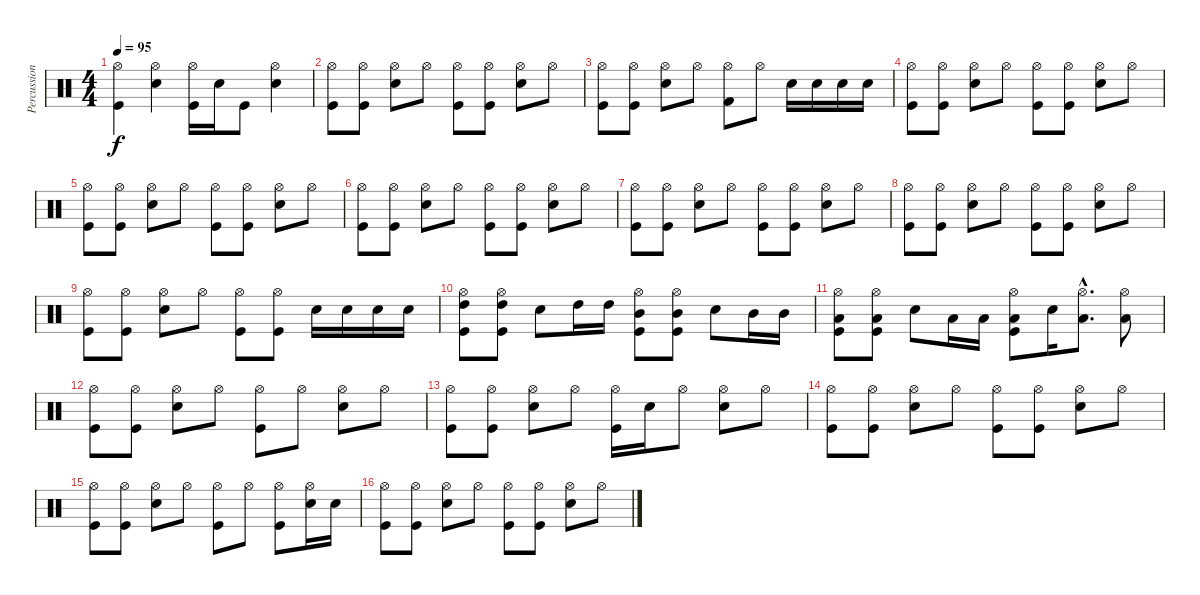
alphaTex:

\track ("Percussion" "Percussion") {instrument percussion}
\staff {score}
\articulation defaults
\ts (4 4)
\tempo 95
\clef neutral
\ks c
("Hi-Hat (open)" "Kick (hit)").4{dy f} ("Hi-Hat (open)" "Snare (hit) 2").4 ("Hi-Hat (open)" "Kick (hit)").16 "Snare (hit) 2".16 "Kick (hit)".8 ("Hi-Hat (open)" "Snare (hit) 2").4 |
("Hi-Hat (open)" "Kick (hit)").8 ("Hi-Hat (open)" "Kick (hit)").8 ("Hi-Hat (open)" "Snare (hit) 2").8 "Hi-Hat (open)".8 ("Hi-Hat (open)" "Kick (hit)").8 ("Hi-Hat (open)" "Kick (hit)").8 ("Hi-Hat (open)" "Snare (hit) 2").8 "Hi-Hat (open)".8 |
("Hi-Hat (open)" "Kick (hit)").8 ("Hi-Hat (open)" "Kick (hit)").8 ("Hi-Hat (open)" "Snare (hit) 2").8 "Hi-Hat (open)".8 ("Hi-Hat (open)" "Kick (hit) 2").8 "Hi-Hat (open)".8 "Snare (hit) 2".16 "Snare (hit) 2".16 "Snare (hit) 2".16 "Snare (hit) 2".16 |
("Hi-Hat (open)" "Kick (hit)").8 ("Hi-Hat (open)" "Kick (hit)").8 ("Hi-Hat (open)" "Snare (hit) 2").8 "Hi-Hat (open)".8 ("Hi-Hat (open)" "Kick (hit)").8 ("Hi-Hat (open)" "Kick (hit)").8 ("Hi-Hat (open)" "Snare (hit) 2").8 "Hi-Hat (open)".8 |
("Hi-Hat (open)" "Kick (hit)").8 ("Hi-Hat (open)" "Kick (hit)").8 ("Hi-Hat (open)" "Snare (hit) 2").8 "Hi-Hat (open)".8 ("Hi-Hat (open)" "Kick (hit)").8 ("Hi-Hat (open)" "Kick (hit)").8 ("Hi-Hat (open)" "Snare (hit) 2").8 "Hi-Hat (open)".8 |
("Hi-Hat (open)" "Kick (hit)").8 ("Hi-Hat (open)" "Kick (hit)").8 ("Hi-Hat (open)" "Snare (hit) 2").8 "Hi-Hat (open)".8 ("Hi-Hat (open)" "Kick (hit)").8 ("Hi-Hat (open)" "Kick (hit)").8 ("Hi-Hat (open)" "Snare (hit) 2").8 "Hi-Hat (open)".8 |
("Hi-Hat (open)" "Kick (hit)").8 ("Hi-Hat (open)" "Kick (hit)").8 ("Hi-Hat (open)" "Snare (hit) 2").8 "Hi-Hat (open)".8 ("Hi-Hat (open)" "Kick (hit)").8 ("Hi-Hat (open)" "Kick (hit)").8 ("Hi-Hat (open)" "Snare (hit) 2").8 "Hi-Hat (open)".8 |
("Hi-Hat (open)" "Kick (hit)").8 ("Hi-Hat (open)" "Kick (hit)").8 ("Hi-Hat (open)" "Snare (hit) 2").8 "Hi-Hat (open)".8 ("Hi-Hat (open)" "Kick (hit)").8 ("Hi-Hat (open)" "Kick (hit)").8 ("Hi-Hat (open)" "Snare (hit) 2").8 "Hi-Hat (open)".8 |
("Hi-Hat (open)" "Kick (hit)").8 ("Hi-Hat (open)" "Kick (hit)").8 ("Hi-Hat (open)" "Snare (hit) 2").8 "Hi-Hat (open)".8 ("Hi-Hat (open)" "Kick (hit)").8 ("Hi-Hat (open)" "Kick (hit)").8 "Snare (hit) 2".16 "Snare (hit) 2".16 "Snare (hit) 2".16 "Snare (hit) 2".16 |
("High Tom (hit)" "Hi-Hat (open)" "Kick (hit)").8 ("High Tom (hit)" "Hi-Hat (open)" "Kick (hit)").8 "Snare (hit) 2".8 "High Tom (hit)".16 "High Tom (hit)".16 ("Mid Tom (hit)" "Hi-Hat (open)" "Kick (hit)").8 ("Mid Tom (hit)" "Hi-Hat (open)" "Kick (hit)").8 "Snare (hit) 2".8 "Mid Tom (hit)".16 "Mid Tom (hit)".16 |
("Low Tom (hit)" "Hi-Hat (open)" "Kick (hit)").8 ("Low Tom (hit)" "Hi-Hat (open)" "Kick (hit)").8 "Snare (hit) 2".8 "Low Tom (hit)".16 "Low Tom (hit)".16 ("Low Tom (hit)" "Hi-Hat (open)" "Kick (hit)").8 "Snare (hit) 2".16 ("Low Tom (hit)"{hac} "Hi-Hat (open)"{hac}).8{d} ("Low Tom (hit)" "Hi-Hat (open)").8 |
("Hi-Hat (open)" "Kick (hit)").8 ("Hi-Hat (open)" "Kick (hit)").8 ("Hi-Hat (open)" "Snare (hit) 2").8 "Hi-Hat (open)".8 ("Hi-Hat (open)" "Kick (hit)").8 "Hi-Hat (open)".8 ("Hi-Hat (open)" "Snare (hit) 2").8 "Hi-Hat (open)".8 |
("Hi-Hat (open)" "Kick (hit)").8 ("Hi-Hat (open)" "Kick (hit)").8 ("Hi-Hat (open)" "Snare (hit) 2").8 "Hi-Hat (open)".8 ("Hi-Hat (open)" "Kick (hit)").16 "Snare (hit) 2".16 "Hi-Hat (open)".8 ("Hi-Hat (open)" "Snare (hit) 2").8 "Hi-Hat (open)".8 |
("Hi-Hat (open)" "Kick (hit)").8 ("Hi-Hat (open)" "Kick (hit)").8 ("Hi-Hat (open)" "Snare (hit) 2").8 "Hi-Hat (open)".8 ("Hi-Hat (open)" "Kick (hit)").8 ("Hi-Hat (open)" "Kick (hit)").8 ("Hi-Hat (open)" "Snare (hit) 2").8 "Hi-Hat (open)".8 |
("Hi-Hat (open)" "Kick (hit)").8 ("Hi-Hat (open)" "Kick (hit)").8 ("Hi-Hat (open)" "Snare (hit) 2").8 "Hi-Hat (open)".8 ("Hi-Hat (open)" "Kick (hit)").8 "Hi-Hat (open)".8 ("Hi-Hat (open)" "Kick (hit)").8 ("Hi-Hat (open)" "Snare (hit) 2").16 "Snare (hit) 2".16 |
("Hi-Hat (open)" "Kick (hit)").8 ("Hi-Hat (open)" "Kick (hit)").8 ("Hi-Hat (open)" "Snare (hit) 2").8 "Hi-Hat (open)".8 ("Hi-Hat (open)" "Kick (hit)").8 ("Hi-Hat (open)" "Kick (hit)").8 ("Hi-Hat (open)" "Snare (hit) 2").8 "Hi-Hat (open)".8
